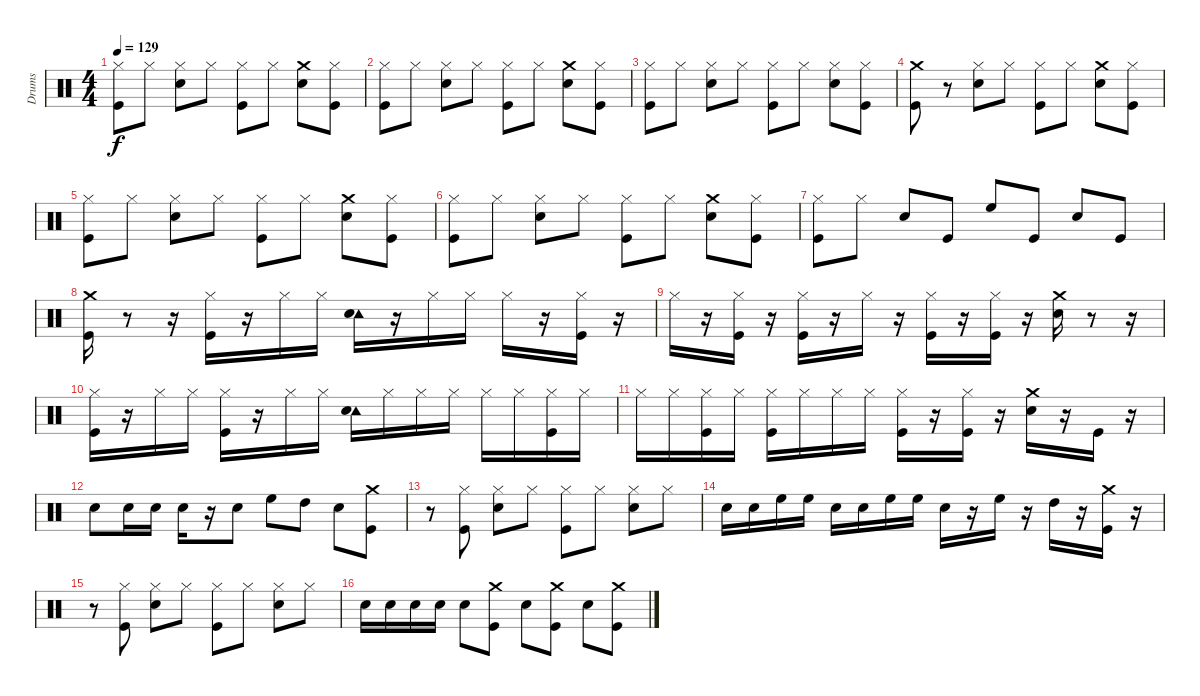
\track ("Drums" "Drums") {instrument percussion}
\staff {score}
\articulation defaults
\ts (4 4)
\tempo 129
\clef neutral
\ks c
("Hi-Hat (closed)" "Kick (hit)").8{dy f} "Hi-Hat (closed)".8 ("Hi-Hat (closed)" "Snare (hit) 2").8 "Hi-Hat (closed)".8 ("Kick (hit)" "Hi-Hat (closed)").8 "Hi-Hat (closed)".8 ("Snare (hit) 2" "Crash medium (hit)").8 ("Hi-Hat (closed)" "Kick (hit)").8 |
("Hi-Hat (closed)" "Kick (hit)").8 "Hi-Hat (closed)".8 ("Hi-Hat (closed)" "Snare (hit) 2").8 "Hi-Hat (closed)".8 ("Kick (hit)" "Hi-Hat (closed)").8 "Hi-Hat (closed)".8 ("Snare (hit) 2" "Crash medium (hit)").8 ("Hi-Hat (closed)" "Kick (hit)").8 |
("Hi-Hat (closed)" "Kick (hit)").8 "Hi-Hat (closed)".8 ("Hi-Hat (closed)" "Snare (hit) 2").8 "Hi-Hat (closed)".8 ("Kick (hit)" "Hi-Hat (closed)").8 "Hi-Hat (closed)".8 ("Hi-Hat (closed)" "Snare (hit) 2").8 ("Hi-Hat (closed)" "Kick (hit)").8 |
("Crash medium (hit)" "Kick (hit)").8 r.8 ("Hi-Hat (closed)" "Snare (hit) 2").8 "Hi-Hat (closed)".8 ("Kick (hit)" "Hi-Hat (closed)").8 "Hi-Hat (closed)".8 ("Snare (hit) 2" "Crash medium (hit)").8 ("Hi-Hat (closed)" "Kick (hit)").8 |
("Hi-Hat (closed)" "Kick (hit)").8 "Hi-Hat (closed)".8 ("Hi-Hat (closed)" "Snare (hit) 2").8 "Hi-Hat (closed)".8 ("Kick (hit)" "Hi-Hat (closed)").8 "Hi-Hat (closed)".8 ("Snare (hit) 2" "Crash medium (hit)").8 ("Hi-Hat (closed)" "Kick (hit)").8 |
("Hi-Hat (closed)" "Kick (hit)").8 "Hi-Hat (closed)".8 ("Hi-Hat (closed)" "Snare (hit) 2").8 "Hi-Hat (closed)".8 ("Kick (hit)" "Hi-Hat (closed)").8 "Hi-Hat (closed)".8 ("Snare (hit) 2" "Crash medium (hit)").8 ("Hi-Hat (closed)" "Kick (hit)").8 |
("Kick (hit)" "Hi-Hat (closed)").8 "Hi-Hat (closed)".8 "Snare (hit) 2".8 "Kick (hit)".8 "High Floor Tom (hit)".8 "Kick (hit)".8 "Snare (hit) 2".8 "Kick (hit)".8 |
("Crash medium (hit)" "Kick (hit)").16 r.8 r.16 ("Hi-Hat (closed)" "Kick (hit)").16 r.16 "Hi-Hat (closed)".16 "Hi-Hat (closed)".16 ("Tambourine (hit)" "Snare (hit) 2").16 r.16 "Hi-Hat (closed)".16 "Hi-Hat (closed)".16 "Hi-Hat (closed)".16 r.16 ("Kick (hit)" "Hi-Hat (closed)").16 r.16 |
"Hi-Hat (closed)".16 r.16 ("Kick (hit)" "Hi-Hat (closed)").16 r.16 ("Hi-Hat (closed)" "Kick (hit)").16 r.16 "Hi-Hat (closed)".16 r.16 ("Hi-Hat (closed)" "Kick (hit)").16 r.16 ("Kick (hit)" "Hi-Hat (closed)").16 r.16 ("Crash medium (hit)" "Snare (hit) 2").16 r.8 r.16 |
("Hi-Hat (closed)" "Kick (hit)").16 r.16 "Hi-Hat (closed)".16 "Hi-Hat (closed)".16 ("Hi-Hat (closed)" "Kick (hit)").16 r.16 "Hi-Hat (closed)".16 "Hi-Hat (closed)".16 ("Tambourine (hit)" "Snare (hit) 2").16 "Hi-Hat (closed)".16 "Hi-Hat (closed)".16 "Hi-Hat (closed)".16 "Hi-Hat (closed)".16 "Hi-Hat (closed)".16 ("Hi-Hat (closed)" "Kick (hit)").16 "Hi-Hat (closed)".16 |
"Hi-Hat (closed)".16 "Hi-Hat (closed)".16 ("Hi-Hat (closed)" "Kick (hit)").16 "Hi-Hat (closed)".16 ("Kick (hit)" "Hi-Hat (closed)").16 "Hi-Hat (closed)".16 "Hi-Hat (closed)".16 "Hi-Hat (closed)".16 ("Hi-Hat (closed)" "Kick (hit)").16 r.16 ("Kick (hit)" "Hi-Hat (closed)").16 r.16 ("Crash medium (hit)" "Snare (hit) 2").16 r.16 "Kick (hit)".16 r.16 |
"Snare (hit) 2".8 "Snare (hit) 2".16 "Snare (hit) 2".16 "Snare (hit) 2".16 r.16 "Snare (hit) 2".8 "High Floor Tom (hit)".8 "High Tom (hit)".8 "Snare (hit) 2".8 ("Crash medium (hit)" "Kick (hit)").8 |
r.8 ("Kick (hit)" "Hi-Hat (closed)").8 ("Hi-Hat (closed)" "Snare (hit) 2").8 "Hi-Hat (closed)".8 ("Kick (hit)" "Hi-Hat (closed)").8 "Hi-Hat (closed)".8 ("Snare (hit) 2" "Hi-Hat (closed)").8 "Hi-Hat (closed)".8 |
"Snare (hit) 2".16 "Snare (hit) 2".16 "High Floor Tom (hit)".16 "High Floor Tom (hit)".16 "Snare (hit) 2".16 "Snare (hit) 2".16 "High Floor Tom (hit)".16 "High Floor Tom (hit)".16 "Snare (hit) 2".16 r.16 "High Floor Tom (hit)".16 r.16 "High Tom (hit)".16 r.16 ("Crash medium (hit)" "Kick (hit)").16 r.16 |
r.8 ("Hi-Hat (closed)" "Kick (hit)").8 ("Hi-Hat (closed)" "Snare (hit) 2").8 "Hi-Hat (closed)".8 ("Kick (hit)" "Hi-Hat (closed)").8 "Hi-Hat (closed)".8 ("Snare (hit) 2" "Hi-Hat (closed)").8 "Hi-Hat (closed)".8 |
"Snare (hit) 2".16 "Snare (hit) 2".16 "Snare (hit) 2".16 "Snare (hit) 2".16 "Snare (hit) 2".8 ("Crash medium (hit)" "Kick (hit)").8 "Snare (hit) 2".8 ("Kick (hit)" "Crash medium (hit)").8 "Snare (hit) 2".8 ("Crash medium (hit)" "Kick (hit)").8
